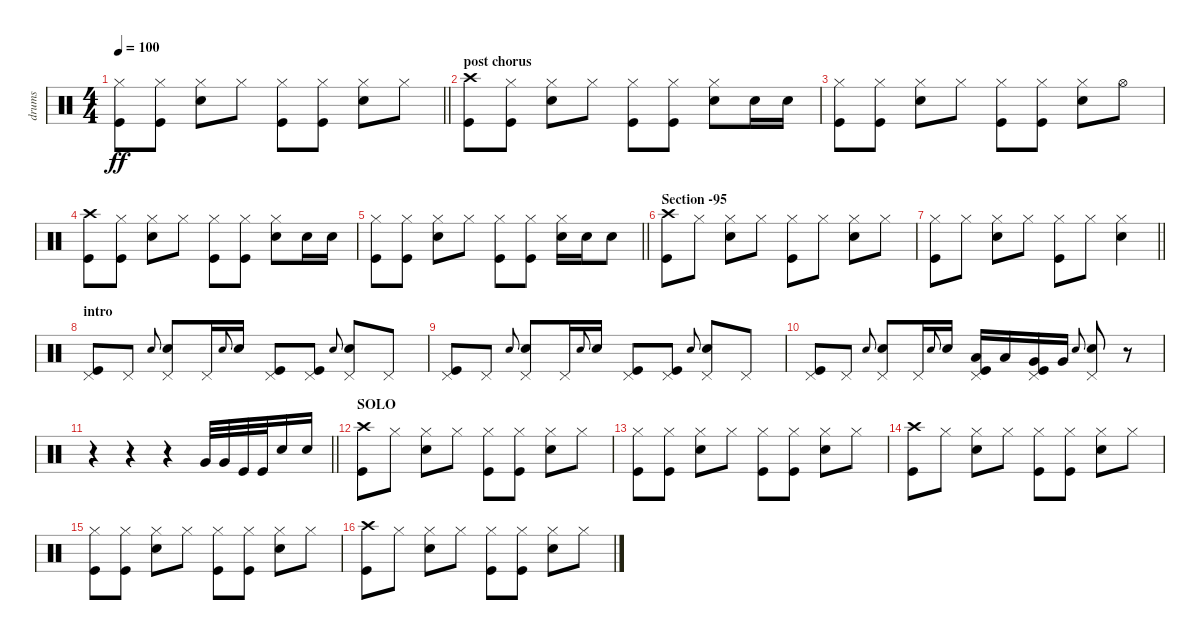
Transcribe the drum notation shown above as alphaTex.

\track ("drums" "drums") {instrument percussion}
\staff {score}
\articulation defaults
\ts (4 4)
\tempo 100
\clef neutral
\barLineRight lightlight
\ks c
("Hi-Hat (closed)" "Kick (hit)").8{dy ff} ("Hi-Hat (closed)" "Kick (hit)").8 ("Hi-Hat (closed)" "Electric Snare (hit)").8 "Hi-Hat (closed)".8 ("Hi-Hat (closed)" "Kick (hit)").8 ("Hi-Hat (closed)" "Kick (hit)").8 ("Hi-Hat (closed)" "Electric Snare (hit)").8 "Hi-Hat (closed)".8 |
\section ("" "post chorus")
("Crash high (hit)" "Kick (hit)").8 ("Hi-Hat (closed)" "Kick (hit)").8 ("Hi-Hat (closed)" "Electric Snare (hit)").8 "Hi-Hat (closed)".8 ("Hi-Hat (closed)" "Kick (hit)").8 ("Hi-Hat (closed)" "Kick (hit)").8 ("Hi-Hat (closed)" "Electric Snare (hit)").8 "Electric Snare (hit)".16 "Electric Snare (hit)".16 |
("Hi-Hat (closed)" "Kick (hit)").8 ("Hi-Hat (closed)" "Kick (hit)").8 ("Hi-Hat (closed)" "Electric Snare (hit)").8 "Hi-Hat (closed)".8 ("Hi-Hat (closed)" "Kick (hit)").8 ("Hi-Hat (closed)" "Kick (hit)").8 ("Hi-Hat (closed)" "Electric Snare (hit)").8 "Hi-Hat (open)".8 |
("Crash high (hit)" "Kick (hit)").8 ("Hi-Hat (closed)" "Kick (hit)").8 ("Hi-Hat (closed)" "Electric Snare (hit)").8 "Hi-Hat (closed)".8 ("Hi-Hat (closed)" "Kick (hit)").8 ("Hi-Hat (closed)" "Kick (hit)").8 ("Hi-Hat (closed)" "Electric Snare (hit)").8 "Electric Snare (hit)".16 "Electric Snare (hit)".16 |
\barLineRight lightlight
("Hi-Hat (closed)" "Kick (hit)").8 ("Hi-Hat (closed)" "Kick (hit)").8 ("Hi-Hat (closed)" "Electric Snare (hit)").8 "Hi-Hat (closed)".8 ("Hi-Hat (closed)" "Kick (hit)").8 ("Hi-Hat (closed)" "Kick (hit)").8 ("Hi-Hat (closed)" "Electric Snare (hit)").16 "Electric Snare (hit)".16 "Electric Snare (hit)".8 |
\section ("" "Section -95")
("Crash high (hit)" "Kick (hit)").8 "Hi-Hat (closed)".8 ("Hi-Hat (closed)" "Electric Snare (hit)").8 "Hi-Hat (closed)".8 ("Hi-Hat (closed)" "Kick (hit)").8 "Hi-Hat (closed)".8 ("Hi-Hat (closed)" "Electric Snare (hit)").8 "Hi-Hat (closed)".8 |
\barLineRight lightlight
("Hi-Hat (closed)" "Kick (hit)").8 "Hi-Hat (closed)".8 ("Hi-Hat (closed)" "Electric Snare (hit)").8 "Hi-Hat (closed)".8 ("Hi-Hat (closed)" "Kick (hit)").8 "Hi-Hat (closed)".8 ("Hi-Hat (closed)" "Electric Snare (hit)").4 |
\section ("" "intro")
("Pedal Hi-Hat (hit)" "Kick (hit)").8 "Pedal Hi-Hat (hit)".8 "Electric Snare (hit)".8{gr onbeat} ("Pedal Hi-Hat (hit)" "Electric Snare (hit)").8 "Pedal Hi-Hat (hit)".16 "Electric Snare (hit)".8{gr onbeat} "Electric Snare (hit)".16 ("Pedal Hi-Hat (hit)" "Kick (hit)").8 ("Pedal Hi-Hat (hit)" "Kick (hit)").8 "Electric Snare (hit)".8{gr onbeat} ("Pedal Hi-Hat (hit)" "Electric Snare (hit)").8 "Pedal Hi-Hat (hit)".8 |
("Pedal Hi-Hat (hit)" "Kick (hit)").8 "Pedal Hi-Hat (hit)".8 "Electric Snare (hit)".8{gr onbeat} ("Pedal Hi-Hat (hit)" "Electric Snare (hit)").8 "Pedal Hi-Hat (hit)".16 "Electric Snare (hit)".8{gr onbeat} "Electric Snare (hit)".16 ("Pedal Hi-Hat (hit)" "Kick (hit)").8 ("Pedal Hi-Hat (hit)" "Kick (hit)").8 "Electric Snare (hit)".8{gr onbeat} ("Pedal Hi-Hat (hit)" "Electric Snare (hit)").8 "Pedal Hi-Hat (hit)".8 |
("Pedal Hi-Hat (hit)" "Kick (hit)").8 "Pedal Hi-Hat (hit)".8 "Electric Snare (hit)".8{gr onbeat} ("Pedal Hi-Hat (hit)" "Electric Snare (hit)").8 "Pedal Hi-Hat (hit)".16 "Electric Snare (hit)".8{gr onbeat} "Electric Snare (hit)".16 ("Pedal Hi-Hat (hit)" "Low Tom (hit)" "Kick (hit)").16 "Low Tom (hit)".16 ("Pedal Hi-Hat (hit)" "Very Low Tom (hit)" "Kick (hit)").16 "Very Low Tom (hit)".16 "Electric Snare (hit)".8{gr onbeat} ("Pedal Hi-Hat (hit)" "Electric Snare (hit)").8 r.8 |
\barLineRight lightlight
r.4 r.4 r.4 "Very Low Tom (hit)".32 "Very Low Tom (hit)".32 "Kick (hit)".32 "Kick (hit)".32 "Electric Snare (hit)".16 "Electric Snare (hit)".16 |
\section ("" "SOLO")
("Crash high (hit)" "Kick (hit)").8 "Hi-Hat (closed)".8 ("Hi-Hat (closed)" "Electric Snare (hit)").8 "Hi-Hat (closed)".8 ("Hi-Hat (closed)" "Kick (hit)").8 ("Hi-Hat (closed)" "Kick (hit)").8 ("Hi-Hat (closed)" "Electric Snare (hit)").8 "Hi-Hat (closed)".8 |
("Hi-Hat (closed)" "Kick (hit)").8 ("Hi-Hat (closed)" "Kick (hit)").8 ("Hi-Hat (closed)" "Electric Snare (hit)").8 "Hi-Hat (closed)".8 ("Hi-Hat (closed)" "Kick (hit)").8 ("Hi-Hat (closed)" "Kick (hit)").8 ("Hi-Hat (closed)" "Electric Snare (hit)").8 "Hi-Hat (closed)".8 |
("Crash high (hit)" "Kick (hit)").8 "Hi-Hat (closed)".8 ("Hi-Hat (closed)" "Electric Snare (hit)").8 "Hi-Hat (closed)".8 ("Hi-Hat (closed)" "Kick (hit)").8 ("Hi-Hat (closed)" "Kick (hit)").8 ("Hi-Hat (closed)" "Electric Snare (hit)").8 "Hi-Hat (closed)".8 |
("Hi-Hat (closed)" "Kick (hit)").8 ("Hi-Hat (closed)" "Kick (hit)").8 ("Hi-Hat (closed)" "Electric Snare (hit)").8 "Hi-Hat (closed)".8 ("Hi-Hat (closed)" "Kick (hit)").8 ("Hi-Hat (closed)" "Kick (hit)").8 ("Hi-Hat (closed)" "Electric Snare (hit)").8 "Hi-Hat (closed)".8 |
("Crash high (hit)" "Kick (hit)").8 "Hi-Hat (closed)".8 ("Hi-Hat (closed)" "Electric Snare (hit)").8 "Hi-Hat (closed)".8 ("Hi-Hat (closed)" "Kick (hit)").8 ("Hi-Hat (closed)" "Kick (hit)").8 ("Hi-Hat (closed)" "Electric Snare (hit)").8 "Hi-Hat (closed)".8
